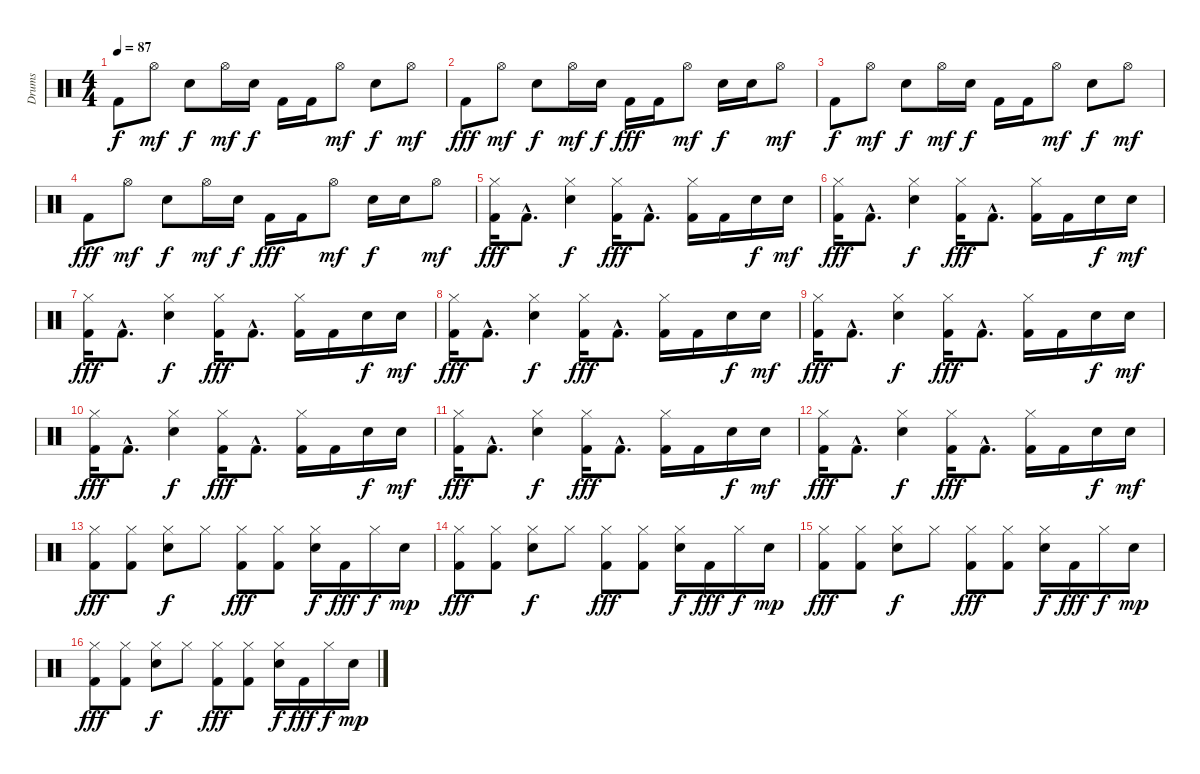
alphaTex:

\track ("Drums" "Drums") {instrument percussion}
\staff {score}
\articulation defaults
\ts (4 4)
\tempo 87
\clef neutral
\ks c "Kick (hit) 2".8{dy f} "Hi-Hat (open)".8{dy mf} "Snare (hit) 2".8{dy f} "Hi-Hat (open)".16{dy mf} "Snare (hit) 2".16{dy f} "Kick (hit) 2".16 "Kick (hit) 2".16 "Hi-Hat (open)".8{dy mf} "Snare (hit) 2".8{dy f} "Hi-Hat (open)".8{dy mf}
|
"Kick (hit) 2".8{dy fff} "Hi-Hat (open)".8{dy mf} "Snare (hit) 2".8{dy f} "Hi-Hat (open)".16{dy mf} "Snare (hit) 2".16{dy f} "Kick (hit) 2".16{dy fff} "Kick (hit) 2".16 "Hi-Hat (open)".8{dy mf} "Snare (hit) 2".16{dy f} "Snare (hit) 2".16 "Hi-Hat (open)".8{dy mf} |
"Kick (hit) 2".8{dy f} "Hi-Hat (open)".8{dy mf} "Snare (hit) 2".8{dy f} "Hi-Hat (open)".16{dy mf} "Snare (hit) 2".16{dy f} "Kick (hit) 2".16 "Kick (hit) 2".16 "Hi-Hat (open)".8{dy mf} "Snare (hit) 2".8{dy f} "Hi-Hat (open)".8{dy mf} |
"Kick (hit) 2".8{dy fff} "Hi-Hat (open)".8{dy mf} "Snare (hit) 2".8{dy f} "Hi-Hat (open)".16{dy mf} "Snare (hit) 2".16{dy f} "Kick (hit) 2".16{dy fff} "Kick (hit) 2".16 "Hi-Hat (open)".8{dy mf} "Snare (hit) 2".16{dy f} "Snare (hit) 2".16 "Hi-Hat (open)".8{dy mf} |
("Hi-Hat (closed)" "Kick (hit) 2").16{dy fff} "Kick (hit) 2"{hac}.8{d} ("Hi-Hat (closed)" "Snare (hit) 2").4{dy f} ("Hi-Hat (closed)" "Kick (hit) 2").16{dy fff} "Kick (hit) 2"{hac}.8{d} ("Hi-Hat (closed)" "Kick (hit) 2").16 "Kick (hit) 2".16 "Snare (hit) 2".16{dy f} "Snare (hit) 2".16{dy mf} |
("Hi-Hat (closed)" "Kick (hit) 2").16{dy fff} "Kick (hit) 2"{hac}.8{d} ("Hi-Hat (closed)" "Snare (hit) 2").4{dy f} ("Hi-Hat (closed)" "Kick (hit) 2").16{dy fff} "Kick (hit) 2"{hac}.8{d} ("Hi-Hat (closed)" "Kick (hit) 2").16 "Kick (hit) 2".16 "Snare (hit) 2".16{dy f} "Snare (hit) 2".16{dy mf} |
("Hi-Hat (closed)" "Kick (hit) 2").16{dy fff} "Kick (hit) 2"{hac}.8{d} ("Hi-Hat (closed)" "Snare (hit) 2").4{dy f} ("Hi-Hat (closed)" "Kick (hit) 2").16{dy fff} "Kick (hit) 2"{hac}.8{d} ("Hi-Hat (closed)" "Kick (hit) 2").16 "Kick (hit) 2".16 "Snare (hit) 2".16{dy f} "Snare (hit) 2".16{dy mf} |
("Hi-Hat (closed)" "Kick (hit) 2").16{dy fff} "Kick (hit) 2"{hac}.8{d} ("Hi-Hat (closed)" "Snare (hit) 2").4{dy f} ("Hi-Hat (closed)" "Kick (hit) 2").16{dy fff} "Kick (hit) 2"{hac}.8{d} ("Hi-Hat (closed)" "Kick (hit) 2").16 "Kick (hit) 2".16 "Snare (hit) 2".16{dy f} "Snare (hit) 2".16{dy mf} |
("Hi-Hat (closed)" "Kick (hit) 2").16{dy fff} "Kick (hit) 2"{hac}.8{d} ("Hi-Hat (closed)" "Snare (hit) 2").4{dy f} ("Hi-Hat (closed)" "Kick (hit) 2").16{dy fff} "Kick (hit) 2"{hac}.8{d} ("Hi-Hat (closed)" "Kick (hit) 2").16 "Kick (hit) 2".16 "Snare (hit) 2".16{dy f} "Snare (hit) 2".16{dy mf} |
("Hi-Hat (closed)" "Kick (hit) 2").16{dy fff} "Kick (hit) 2"{hac}.8{d} ("Hi-Hat (closed)" "Snare (hit) 2").4{dy f} ("Hi-Hat (closed)" "Kick (hit) 2").16{dy fff} "Kick (hit) 2"{hac}.8{d} ("Hi-Hat (closed)" "Kick (hit) 2").16 "Kick (hit) 2".16 "Snare (hit) 2".16{dy f} "Snare (hit) 2".16{dy mf} |
("Hi-Hat (closed)" "Kick (hit) 2").16{dy fff} "Kick (hit) 2"{hac}.8{d} ("Hi-Hat (closed)" "Snare (hit) 2").4{dy f} ("Hi-Hat (closed)" "Kick (hit) 2").16{dy fff} "Kick (hit) 2"{hac}.8{d} ("Hi-Hat (closed)" "Kick (hit) 2").16 "Kick (hit) 2".16 "Snare (hit) 2".16{dy f} "Snare (hit) 2".16{dy mf} |
("Hi-Hat (closed)" "Kick (hit) 2").16{dy fff} "Kick (hit) 2"{hac}.8{d} ("Hi-Hat (closed)" "Snare (hit) 2").4{dy f} ("Hi-Hat (closed)" "Kick (hit) 2").16{dy fff} "Kick (hit) 2"{hac}.8{d} ("Hi-Hat (closed)" "Kick (hit) 2").16 "Kick (hit) 2".16 "Snare (hit) 2".16{dy f} "Snare (hit) 2".16{dy mf} |
("Hi-Hat (closed)" "Kick (hit) 2").8{dy fff} ("Hi-Hat (closed)" "Kick (hit) 2").8 ("Hi-Hat (closed)" "Snare (hit) 2").8{dy f} "Hi-Hat (closed)".8 ("Hi-Hat (closed)" "Kick (hit) 2").8{dy fff} ("Hi-Hat (closed)" "Kick (hit) 2").8 ("Hi-Hat (closed)" "Snare (hit) 2").16{dy f} "Kick (hit) 2".16{dy fff} "Hi-Hat (closed)".16{dy f} "Snare (hit) 2".16{dy mp} |
("Hi-Hat (closed)" "Kick (hit) 2").8{dy fff} ("Hi-Hat (closed)" "Kick (hit) 2").8 ("Hi-Hat (closed)" "Snare (hit) 2").8{dy f} "Hi-Hat (closed)".8 ("Hi-Hat (closed)" "Kick (hit) 2").8{dy fff} ("Hi-Hat (closed)" "Kick (hit) 2").8 ("Hi-Hat (closed)" "Snare (hit) 2").16{dy f} "Kick (hit) 2".16{dy fff} "Hi-Hat (closed)".16{dy f} "Snare (hit) 2".16{dy mp} |
("Hi-Hat (closed)" "Kick (hit) 2").8{dy fff} ("Hi-Hat (closed)" "Kick (hit) 2").8 ("Hi-Hat (closed)" "Snare (hit) 2").8{dy f} "Hi-Hat (closed)".8 ("Hi-Hat (closed)" "Kick (hit) 2").8{dy fff} ("Hi-Hat (closed)" "Kick (hit) 2").8 ("Hi-Hat (closed)" "Snare (hit) 2").16{dy f} "Kick (hit) 2".16{dy fff} "Hi-Hat (closed)".16{dy f} "Snare (hit) 2".16{dy mp} |
("Hi-Hat (closed)" "Kick (hit) 2").8{dy fff} ("Hi-Hat (closed)" "Kick (hit) 2").8 ("Hi-Hat (closed)" "Snare (hit) 2").8{dy f} "Hi-Hat (closed)".8 ("Hi-Hat (closed)" "Kick (hit) 2").8{dy fff} ("Hi-Hat (closed)" "Kick (hit) 2").8 ("Hi-Hat (closed)" "Snare (hit) 2").16{dy f} "Kick (hit) 2".16{dy fff} "Hi-Hat (closed)".16{dy f} "Snare (hit) 2".16{dy mp}
